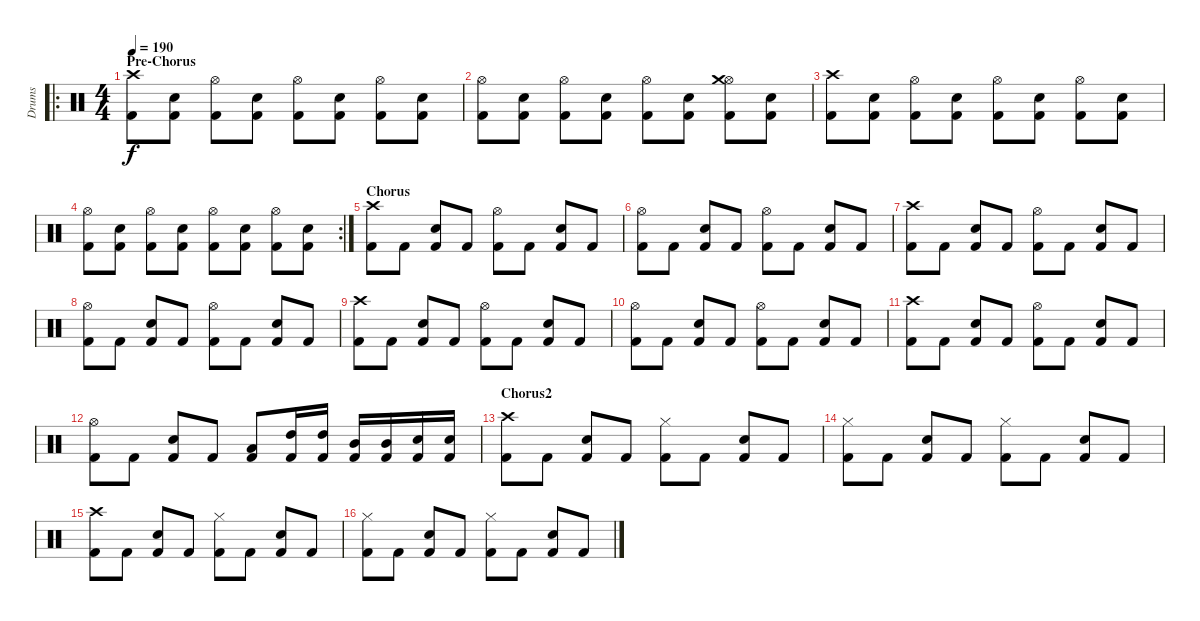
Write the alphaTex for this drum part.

\track ("Drums" "Drums") {instrument percussion}
\staff {score}
\articulation defaults
\ro
\ts (4 4)
\section ("" "Pre-Chorus")
\tempo 190
\clef neutral
\ks c
("Kick (hit) 2" "Crash high (hit)").8{dy f} ("Kick (hit) 2" "Electric Snare (hit)").8 ("Kick (hit) 2" "Hi-Hat (open)").8 ("Kick (hit) 2" "Electric Snare (hit)").8 ("Kick (hit) 2" "Hi-Hat (open)").8 ("Kick (hit) 2" "Electric Snare (hit)").8 ("Kick (hit) 2" "Hi-Hat (open)").8 ("Kick (hit) 2" "Electric Snare (hit)").8 |
("Kick (hit) 2" "Hi-Hat (open)").8 ("Kick (hit) 2" "Electric Snare (hit)").8 ("Kick (hit) 2" "Hi-Hat (open)").8 ("Kick (hit) 2" "Electric Snare (hit)").8 ("Kick (hit) 2" "Hi-Hat (open)").8 ("Kick (hit) 2" "Electric Snare (hit)").8 ("Kick (hit) 2" "Hi-Hat (open)" "Crash medium (hit)").8 ("Kick (hit) 2" "Electric Snare (hit)").8 |
("Kick (hit) 2" "Crash high (hit)").8 ("Kick (hit) 2" "Electric Snare (hit)").8 ("Kick (hit) 2" "Hi-Hat (open)").8 ("Kick (hit) 2" "Electric Snare (hit)").8 ("Kick (hit) 2" "Hi-Hat (open)").8 ("Kick (hit) 2" "Electric Snare (hit)").8 ("Kick (hit) 2" "Hi-Hat (open)").8 ("Kick (hit) 2" "Electric Snare (hit)").8 |
\rc 2
("Kick (hit) 2" "Hi-Hat (open)").8 ("Kick (hit) 2" "Electric Snare (hit)").8 ("Kick (hit) 2" "Hi-Hat (open)").8 ("Kick (hit) 2" "Electric Snare (hit)").8 ("Kick (hit) 2" "Hi-Hat (open)").8 ("Kick (hit) 2" "Electric Snare (hit)").8 ("Kick (hit) 2" "Hi-Hat (open)").8 ("Kick (hit) 2" "Electric Snare (hit)").8 |
\section ("" "Chorus")
("Kick (hit) 2" "Crash high (hit)").8 "Kick (hit) 2".8 ("Kick (hit) 2" "Electric Snare (hit)").8 "Kick (hit) 2".8 ("Kick (hit) 2" "Hi-Hat (open)").8 "Kick (hit) 2".8 ("Kick (hit) 2" "Electric Snare (hit)").8 "Kick (hit) 2".8 |
("Kick (hit) 2" "Hi-Hat (open)").8 "Kick (hit) 2".8 ("Kick (hit) 2" "Electric Snare (hit)").8 "Kick (hit) 2".8 ("Kick (hit) 2" "Hi-Hat (open)").8 "Kick (hit) 2".8 ("Kick (hit) 2" "Electric Snare (hit)").8 "Kick (hit) 2".8 |
("Kick (hit) 2" "Crash high (hit)").8 "Kick (hit) 2".8 ("Kick (hit) 2" "Electric Snare (hit)").8 "Kick (hit) 2".8 ("Kick (hit) 2" "Hi-Hat (open)").8 "Kick (hit) 2".8 ("Kick (hit) 2" "Electric Snare (hit)").8 "Kick (hit) 2".8 |
("Kick (hit) 2" "Hi-Hat (open)").8 "Kick (hit) 2".8 ("Kick (hit) 2" "Electric Snare (hit)").8 "Kick (hit) 2".8 ("Kick (hit) 2" "Hi-Hat (open)").8 "Kick (hit) 2".8 ("Kick (hit) 2" "Electric Snare (hit)").8 "Kick (hit) 2".8 |
("Kick (hit) 2" "Crash high (hit)").8 "Kick (hit) 2".8 ("Kick (hit) 2" "Electric Snare (hit)").8 "Kick (hit) 2".8 ("Kick (hit) 2" "Hi-Hat (open)").8 "Kick (hit) 2".8 ("Kick (hit) 2" "Electric Snare (hit)").8 "Kick (hit) 2".8 |
("Kick (hit) 2" "Hi-Hat (open)").8 "Kick (hit) 2".8 ("Kick (hit) 2" "Electric Snare (hit)").8 "Kick (hit) 2".8 ("Kick (hit) 2" "Hi-Hat (open)").8 "Kick (hit) 2".8 ("Kick (hit) 2" "Electric Snare (hit)").8 "Kick (hit) 2".8 |
("Kick (hit) 2" "Crash high (hit)").8 "Kick (hit) 2".8 ("Kick (hit) 2" "Electric Snare (hit)").8 "Kick (hit) 2".8 ("Kick (hit) 2" "Hi-Hat (open)").8 "Kick (hit) 2".8 ("Kick (hit) 2" "Electric Snare (hit)").8 "Kick (hit) 2".8 |
("Kick (hit) 2" "Hi-Hat (open)").8 "Kick (hit) 2".8 ("Kick (hit) 2" "Electric Snare (hit)").8 "Kick (hit) 2".8 ("Kick (hit) 2" "Low Tom (hit)").8 ("Kick (hit) 2" "High Tom (hit)").16 ("Kick (hit) 2" "High Tom (hit)").16 ("Kick (hit) 2" "Mid Tom (hit)").16 ("Kick (hit) 2" "Mid Tom (hit)").16 ("Kick (hit) 2" "Electric Snare (hit)").16 ("Kick (hit) 2" "Electric Snare (hit)").16 |
\section ("" "Chorus2")
("Kick (hit) 2" "Crash high (hit)").8 "Kick (hit) 2".8 ("Kick (hit) 2" "Electric Snare (hit)").8 "Kick (hit) 2".8 ("Kick (hit) 2" "Hi-Hat (closed)").8 "Kick (hit) 2".8 ("Kick (hit) 2" "Electric Snare (hit)").8 "Kick (hit) 2".8 |
("Kick (hit) 2" "Hi-Hat (closed)").8 "Kick (hit) 2".8 ("Kick (hit) 2" "Electric Snare (hit)").8 "Kick (hit) 2".8 ("Kick (hit) 2" "Hi-Hat (closed)").8 "Kick (hit) 2".8 ("Kick (hit) 2" "Electric Snare (hit)").8 "Kick (hit) 2".8 |
("Kick (hit) 2" "Crash high (hit)").8 "Kick (hit) 2".8 ("Kick (hit) 2" "Electric Snare (hit)").8 "Kick (hit) 2".8 ("Kick (hit) 2" "Hi-Hat (closed)").8 "Kick (hit) 2".8 ("Kick (hit) 2" "Electric Snare (hit)").8 "Kick (hit) 2".8 |
("Kick (hit) 2" "Hi-Hat (closed)").8 "Kick (hit) 2".8 ("Kick (hit) 2" "Electric Snare (hit)").8 "Kick (hit) 2".8 ("Kick (hit) 2" "Hi-Hat (closed)").8 "Kick (hit) 2".8 ("Kick (hit) 2" "Electric Snare (hit)").8 "Kick (hit) 2".8
